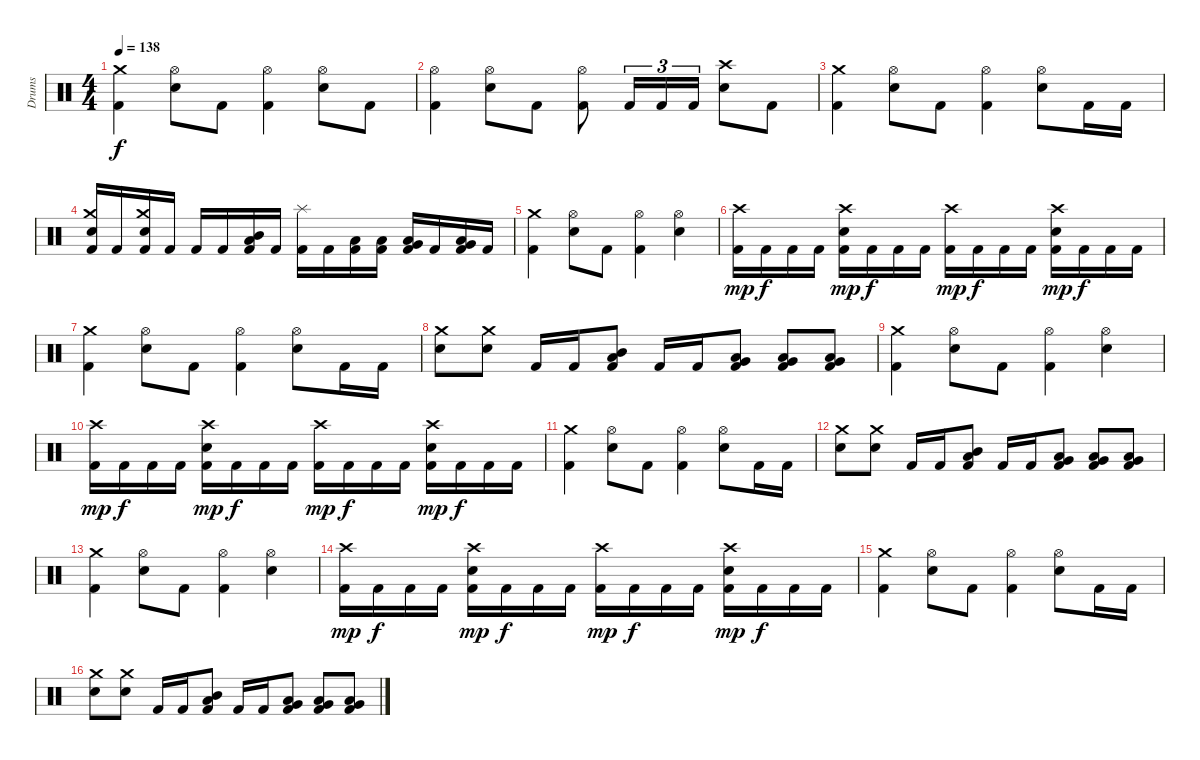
\track ("Drums" "Drums") {instrument percussion}
\staff {score}
\articulation defaults
\ts (4 4)
\tempo 138
\clef neutral
\ks c
("Kick (hit) 2" "Crash medium (hit)").4{dy f} ("Electric Snare (hit)" "Hi-Hat (open)").8 "Kick (hit) 2".8 ("Kick (hit) 2" "Hi-Hat (open)").4 ("Electric Snare (hit)" "Hi-Hat (open)").8 "Kick (hit) 2".8 |
("Kick (hit) 2" "Hi-Hat (open)").4 ("Electric Snare (hit)" "Hi-Hat (open)").8 "Kick (hit) 2".8 ("Kick (hit) 2" "Hi-Hat (open)").8 "Kick (hit) 2".16{tu (3 2)} "Kick (hit) 2".16{tu (3 2)} "Kick (hit) 2".16{tu (3 2)} ("Electric Snare (hit)" "Crash high (hit)").8 "Kick (hit) 2".8 |
("Kick (hit) 2" "Crash medium (hit)").4 ("Electric Snare (hit)" "Hi-Hat (open)").8 "Kick (hit) 2".8 ("Kick (hit) 2" "Hi-Hat (open)").4 ("Electric Snare (hit)" "Hi-Hat (open)").8 "Kick (hit) 2".16 "Kick (hit) 2".16 |
("Kick (hit) 2" "Electric Snare (hit)" "Crash medium (hit)").16 "Kick (hit) 2".16 ("Kick (hit) 2" "Electric Snare (hit)" "Crash medium (hit)").16 "Kick (hit) 2".16 "Kick (hit) 2".16 "Kick (hit) 2".16 ("Kick (hit) 2" "Mid Tom (hit)" "Low Tom (hit)").16 "Kick (hit) 2".16 ("Kick (hit) 2" "Splash (hit)").16 "Kick (hit) 2".16 ("Kick (hit) 2" "Low Tom (hit)").16 ("Kick (hit) 2" "Low Tom (hit)").16 ("Kick (hit) 2" "Very Low Tom (hit)" "Low Floor Tom (hit)").16 "Kick (hit) 2".16 ("Kick (hit) 2" "Very Low Tom (hit)" "Low Floor Tom (hit)").16 "Kick (hit) 2".16 |
("Kick (hit) 2" "Crash medium (hit)").4 ("Electric Snare (hit)" "Hi-Hat (open)").8 "Kick (hit) 2".8 ("Kick (hit) 2" "Hi-Hat (open)").4 ("Electric Snare (hit)" "Hi-Hat (open)").4 |
("Kick (hit) 2" "Crash high (hit)").16{dy mp} "Kick (hit) 2".16{dy f} "Kick (hit) 2".16 "Kick (hit) 2".16 ("Kick (hit) 2" "Electric Snare (hit)" "Crash high (hit)").16{dy mp} "Kick (hit) 2".16{dy f} "Kick (hit) 2".16 "Kick (hit) 2".16 ("Kick (hit) 2" "Crash high (hit)").16{dy mp} "Kick (hit) 2".16{dy f} "Kick (hit) 2".16 "Kick (hit) 2".16 ("Kick (hit) 2" "Electric Snare (hit)" "Crash high (hit)").16{dy mp} "Kick (hit) 2".16{dy f} "Kick (hit) 2".16 "Kick (hit) 2".16 |
("Kick (hit) 2" "Crash medium (hit)").4 ("Electric Snare (hit)" "Hi-Hat (open)").8 "Kick (hit) 2".8 ("Kick (hit) 2" "Hi-Hat (open)").4 ("Electric Snare (hit)" "Hi-Hat (open)").8 "Kick (hit) 2".16 "Kick (hit) 2".16 |
("Electric Snare (hit)" "Crash medium (hit)").8 ("Electric Snare (hit)" "Crash medium (hit)").8 "Kick (hit) 2".16 "Kick (hit) 2".16 ("Kick (hit) 2" "Mid Tom (hit)" "Low Tom (hit)").8 "Kick (hit) 2".16 "Kick (hit) 2".16 ("Kick (hit) 2" "Low Tom (hit)" "Very Low Tom (hit)").8 ("Kick (hit) 2" "Very Low Tom (hit)" "Low Floor Tom (hit)").8 ("Kick (hit) 2" "Very Low Tom (hit)" "Low Floor Tom (hit)").8 |
("Kick (hit) 2" "Crash medium (hit)").4 ("Electric Snare (hit)" "Hi-Hat (open)").8 "Kick (hit) 2".8 ("Kick (hit) 2" "Hi-Hat (open)").4 ("Electric Snare (hit)" "Hi-Hat (open)").4 |
("Kick (hit) 2" "Crash high (hit)").16{dy mp} "Kick (hit) 2".16{dy f} "Kick (hit) 2".16 "Kick (hit) 2".16 ("Kick (hit) 2" "Electric Snare (hit)" "Crash high (hit)").16{dy mp} "Kick (hit) 2".16{dy f} "Kick (hit) 2".16 "Kick (hit) 2".16 ("Kick (hit) 2" "Crash high (hit)").16{dy mp} "Kick (hit) 2".16{dy f} "Kick (hit) 2".16 "Kick (hit) 2".16 ("Kick (hit) 2" "Electric Snare (hit)" "Crash high (hit)").16{dy mp} "Kick (hit) 2".16{dy f} "Kick (hit) 2".16 "Kick (hit) 2".16 |
("Kick (hit) 2" "Crash medium (hit)").4 ("Electric Snare (hit)" "Hi-Hat (open)").8 "Kick (hit) 2".8 ("Kick (hit) 2" "Hi-Hat (open)").4 ("Electric Snare (hit)" "Hi-Hat (open)").8 "Kick (hit) 2".16 "Kick (hit) 2".16 |
("Electric Snare (hit)" "Crash medium (hit)").8 ("Electric Snare (hit)" "Crash medium (hit)").8 "Kick (hit) 2".16 "Kick (hit) 2".16 ("Kick (hit) 2" "Mid Tom (hit)" "Low Tom (hit)").8 "Kick (hit) 2".16 "Kick (hit) 2".16 ("Kick (hit) 2" "Low Tom (hit)" "Very Low Tom (hit)").8 ("Kick (hit) 2" "Very Low Tom (hit)" "Low Floor Tom (hit)").8 ("Kick (hit) 2" "Very Low Tom (hit)" "Low Floor Tom (hit)").8 |
("Kick (hit) 2" "Crash medium (hit)").4 ("Electric Snare (hit)" "Hi-Hat (open)").8 "Kick (hit) 2".8 ("Kick (hit) 2" "Hi-Hat (open)").4 ("Electric Snare (hit)" "Hi-Hat (open)").4 |
("Kick (hit) 2" "Crash high (hit)").16{dy mp} "Kick (hit) 2".16{dy f} "Kick (hit) 2".16 "Kick (hit) 2".16 ("Kick (hit) 2" "Electric Snare (hit)" "Crash high (hit)").16{dy mp} "Kick (hit) 2".16{dy f} "Kick (hit) 2".16 "Kick (hit) 2".16 ("Kick (hit) 2" "Crash high (hit)").16{dy mp} "Kick (hit) 2".16{dy f} "Kick (hit) 2".16 "Kick (hit) 2".16 ("Kick (hit) 2" "Electric Snare (hit)" "Crash high (hit)").16{dy mp} "Kick (hit) 2".16{dy f} "Kick (hit) 2".16 "Kick (hit) 2".16 |
("Kick (hit) 2" "Crash medium (hit)").4 ("Electric Snare (hit)" "Hi-Hat (open)").8 "Kick (hit) 2".8 ("Kick (hit) 2" "Hi-Hat (open)").4 ("Electric Snare (hit)" "Hi-Hat (open)").8 "Kick (hit) 2".16 "Kick (hit) 2".16 |
("Electric Snare (hit)" "Crash medium (hit)").8 ("Electric Snare (hit)" "Crash medium (hit)").8 "Kick (hit) 2".16 "Kick (hit) 2".16 ("Kick (hit) 2" "Mid Tom (hit)" "Low Tom (hit)").8 "Kick (hit) 2".16 "Kick (hit) 2".16 ("Kick (hit) 2" "Low Tom (hit)" "Very Low Tom (hit)").8 ("Kick (hit) 2" "Very Low Tom (hit)" "Low Floor Tom (hit)").8 ("Kick (hit) 2" "Very Low Tom (hit)" "Low Floor Tom (hit)").8
